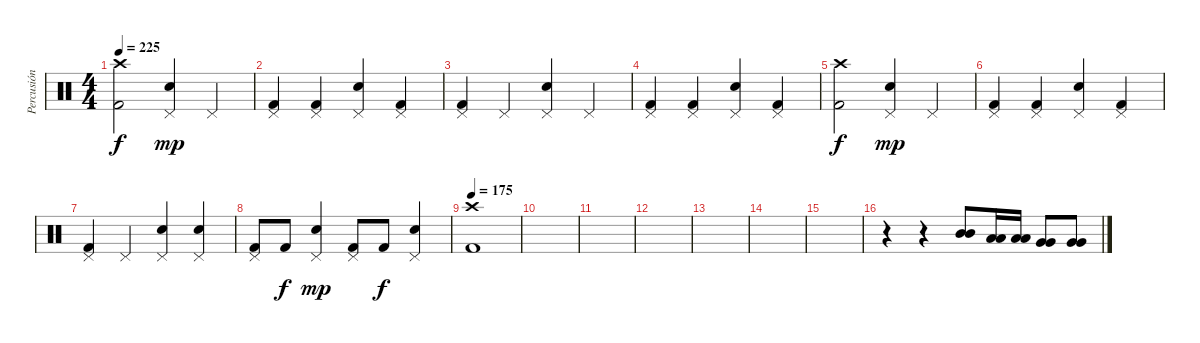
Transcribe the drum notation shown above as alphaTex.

\track ("Percusión" "Percusión") {instrument percussion}
\staff {score}
\articulation defaults
\ts (4 4)
\tempo 225
\clef neutral
\ks c
("Crash high (hit)" "Kick (hit) 2").2{dy f} ("Pedal Hi-Hat (hit)" "Electric Snare (hit)").4{dy mp} "Pedal Hi-Hat (hit)".4 |
("Pedal Hi-Hat (hit)" "Kick (hit) 2").4 ("Pedal Hi-Hat (hit)" "Kick (hit) 2").4 ("Pedal Hi-Hat (hit)" "Electric Snare (hit)").4 ("Pedal Hi-Hat (hit)" "Kick (hit) 2").4 |
("Pedal Hi-Hat (hit)" "Kick (hit) 2").4 "Pedal Hi-Hat (hit)".4 ("Pedal Hi-Hat (hit)" "Electric Snare (hit)").4 "Pedal Hi-Hat (hit)".4 |
("Pedal Hi-Hat (hit)" "Kick (hit) 2").4 ("Pedal Hi-Hat (hit)" "Kick (hit) 2").4 ("Pedal Hi-Hat (hit)" "Electric Snare (hit)").4 ("Pedal Hi-Hat (hit)" "Kick (hit) 2").4 |
("Crash high (hit)" "Kick (hit) 2").2{dy f} ("Pedal Hi-Hat (hit)" "Electric Snare (hit)").4{dy mp} "Pedal Hi-Hat (hit)".4 |
("Pedal Hi-Hat (hit)" "Kick (hit) 2").4 ("Pedal Hi-Hat (hit)" "Kick (hit) 2").4 ("Pedal Hi-Hat (hit)" "Electric Snare (hit)").4 ("Pedal Hi-Hat (hit)" "Kick (hit) 2").4 |
("Pedal Hi-Hat (hit)" "Kick (hit) 2").4 "Pedal Hi-Hat (hit)".4 ("Pedal Hi-Hat (hit)" "Electric Snare (hit)").4 ("Pedal Hi-Hat (hit)" "Electric Snare (hit)").4 |
("Pedal Hi-Hat (hit)" "Kick (hit) 2").8 "Kick (hit) 2".8{dy f} ("Pedal Hi-Hat (hit)" "Electric Snare (hit)").4{dy mp} ("Pedal Hi-Hat (hit)" "Kick (hit) 2").8 "Kick (hit) 2".8{dy f} ("Pedal Hi-Hat (hit)" "Electric Snare (hit)").4 |
\tempo 175
("Crash high (hit)" "Kick (hit) 2").1 |
|
|
|
|
|
|
r.4 r.4 ("Mid Tom (hit)" "Mid Tom (hit)").8 ("Low Tom (hit)" "Low Tom (hit)").16 ("Low Tom (hit)" "Low Tom (hit)").16 ("Very Low Tom (hit)" "Very Low Tom (hit)").8 ("Very Low Tom (hit)" "Very Low Tom (hit)").8
